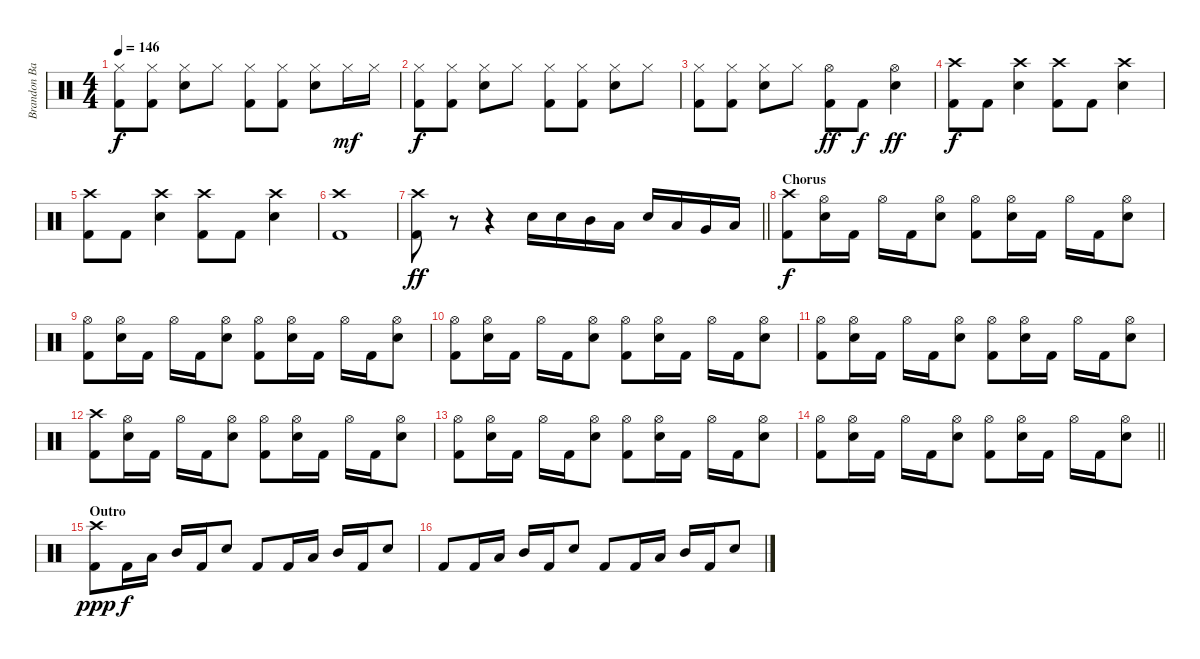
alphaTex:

\track ("Brandon Barnes - Drums" "Brandon Ba") {instrument percussion}
\staff {score}
\articulation defaults
\ts (4 4)
\tempo 146
\clef neutral
\ks c
("Kick (hit) 2" "Hi-Hat (closed)").8{dy f} ("Kick (hit) 2" "Hi-Hat (closed)").8 ("Snare (hit) 2" "Hi-Hat (closed)").8 "Hi-Hat (closed)".8 ("Kick (hit) 2" "Hi-Hat (closed)").8 ("Kick (hit) 2" "Hi-Hat (closed)").8 ("Snare (hit) 2" "Hi-Hat (closed)").8 "Hi-Hat (closed)".16{dy mf} "Hi-Hat (closed)".16 |
("Kick (hit) 2" "Hi-Hat (closed)").8{dy f} ("Kick (hit) 2" "Hi-Hat (closed)").8 ("Snare (hit) 2" "Hi-Hat (closed)").8 "Hi-Hat (closed)".8 ("Kick (hit) 2" "Hi-Hat (closed)").8 ("Kick (hit) 2" "Hi-Hat (closed)").8 ("Snare (hit) 2" "Hi-Hat (closed)").8 "Hi-Hat (closed)".8 |
("Kick (hit) 2" "Hi-Hat (closed)").8 ("Kick (hit) 2" "Hi-Hat (closed)").8 ("Snare (hit) 2" "Hi-Hat (closed)").8 "Hi-Hat (closed)".8 ("Kick (hit) 2" "Hi-Hat (open)").8{dy ff} "Kick (hit) 2".8{dy f} ("Snare (hit) 2" "Hi-Hat (open)").4{dy ff} |
("Crash high (hit)" "Kick (hit) 2").8{dy f} "Kick (hit) 2".8 ("Snare (hit) 2" "Crash high (hit)").4 ("Crash high (hit)" "Kick (hit) 2").8 "Kick (hit) 2".8 ("Snare (hit) 2" "Crash high (hit)").4 |
("Crash high (hit)" "Kick (hit) 2").8 "Kick (hit) 2".8 ("Snare (hit) 2" "Crash high (hit)").4 ("Crash high (hit)" "Kick (hit) 2").8 "Kick (hit) 2".8 ("Snare (hit) 2" "Crash high (hit)").4 |
("Crash high (hit)" "Kick (hit) 2").1 |
\barLineRight lightlight
("Crash high (hit)" "Kick (hit) 2").8{dy ff} r.8 r.4 "Snare (hit) 2".16 "Snare (hit) 2".16 "Mid Tom (hit)".16 "Low Tom (hit)".16 "Snare (hit) 2".16 "Low Tom (hit)".16 "Very Low Tom (hit)".16 "Low Floor Tom (hit)".16 |
\section ("" "Chorus")
("Crash high (hit)" "Kick (hit) 2").8{dy f} ("Snare (hit) 2" "Hi-Hat (open)").16 "Kick (hit) 2".16 "Hi-Hat (open)".16 "Kick (hit) 2".16 ("Snare (hit) 2" "Hi-Hat (open)").8 ("Hi-Hat (open)" "Kick (hit) 2").8 ("Snare (hit) 2" "Hi-Hat (open)").16 "Kick (hit) 2".16 "Hi-Hat (open)".16 "Kick (hit) 2".16 ("Snare (hit) 2" "Hi-Hat (open)").8 |
("Hi-Hat (open)" "Kick (hit) 2").8 ("Snare (hit) 2" "Hi-Hat (open)").16 "Kick (hit) 2".16 "Hi-Hat (open)".16 "Kick (hit) 2".16 ("Snare (hit) 2" "Hi-Hat (open)").8 ("Hi-Hat (open)" "Kick (hit) 2").8 ("Snare (hit) 2" "Hi-Hat (open)").16 "Kick (hit) 2".16 "Hi-Hat (open)".16 "Kick (hit) 2".16 ("Snare (hit) 2" "Hi-Hat (open)").8 |
("Hi-Hat (open)" "Kick (hit) 2").8 ("Snare (hit) 2" "Hi-Hat (open)").16 "Kick (hit) 2".16 "Hi-Hat (open)".16 "Kick (hit) 2".16 ("Snare (hit) 2" "Hi-Hat (open)").8 ("Hi-Hat (open)" "Kick (hit) 2").8 ("Snare (hit) 2" "Hi-Hat (open)").16 "Kick (hit) 2".16 "Hi-Hat (open)".16 "Kick (hit) 2".16 ("Snare (hit) 2" "Hi-Hat (open)").8 |
("Hi-Hat (open)" "Kick (hit) 2").8 ("Snare (hit) 2" "Hi-Hat (open)").16 "Kick (hit) 2".16 "Hi-Hat (open)".16 "Kick (hit) 2".16 ("Snare (hit) 2" "Hi-Hat (open)").8 ("Hi-Hat (open)" "Kick (hit) 2").8 ("Snare (hit) 2" "Hi-Hat (open)").16 "Kick (hit) 2".16 "Hi-Hat (open)".16 "Kick (hit) 2".16 ("Snare (hit) 2" "Hi-Hat (open)").8 |
("Crash high (hit)" "Kick (hit) 2").8 ("Snare (hit) 2" "Hi-Hat (open)").16 "Kick (hit) 2".16 "Hi-Hat (open)".16 "Kick (hit) 2".16 ("Snare (hit) 2" "Hi-Hat (open)").8 ("Hi-Hat (open)" "Kick (hit) 2").8 ("Snare (hit) 2" "Hi-Hat (open)").16 "Kick (hit) 2".16 "Hi-Hat (open)".16 "Kick (hit) 2".16 ("Snare (hit) 2" "Hi-Hat (open)").8 |
("Hi-Hat (open)" "Kick (hit) 2").8 ("Snare (hit) 2" "Hi-Hat (open)").16 "Kick (hit) 2".16 "Hi-Hat (open)".16 "Kick (hit) 2".16 ("Snare (hit) 2" "Hi-Hat (open)").8 ("Hi-Hat (open)" "Kick (hit) 2").8 ("Snare (hit) 2" "Hi-Hat (open)").16 "Kick (hit) 2".16 "Hi-Hat (open)".16 "Kick (hit) 2".16 ("Snare (hit) 2" "Hi-Hat (open)").8 |
\barLineRight lightlight
("Hi-Hat (open)" "Kick (hit) 2").8 ("Snare (hit) 2" "Hi-Hat (open)").16 "Kick (hit) 2".16 "Hi-Hat (open)".16 "Kick (hit) 2".16 ("Snare (hit) 2" "Hi-Hat (open)").8 ("Hi-Hat (open)" "Kick (hit) 2").8 ("Snare (hit) 2" "Hi-Hat (open)").16 "Kick (hit) 2".16 "Hi-Hat (open)".16 "Kick (hit) 2".16 ("Snare (hit) 2" "Hi-Hat (open)").8 |
\section ("" "Outro")
("Crash high (hit)" "Kick (hit) 2").8{dy ppp} "Kick (hit) 2".16{dy f} "Low Tom (hit)".16 "Mid Tom (hit)".16 "Kick (hit) 2".16 "Snare (hit) 2".8 "Kick (hit) 2".8 "Kick (hit) 2".16 "Low Tom (hit)".16 "Mid Tom (hit)".16 "Kick (hit) 2".16 "Snare (hit) 2".8 |
"Kick (hit) 2".8 "Kick (hit) 2".16 "Low Tom (hit)".16 "Mid Tom (hit)".16 "Kick (hit) 2".16 "Snare (hit) 2".8 "Kick (hit) 2".8 "Kick (hit) 2".16 "Low Tom (hit)".16 "Mid Tom (hit)".16 "Kick (hit) 2".16 "Snare (hit) 2".8
